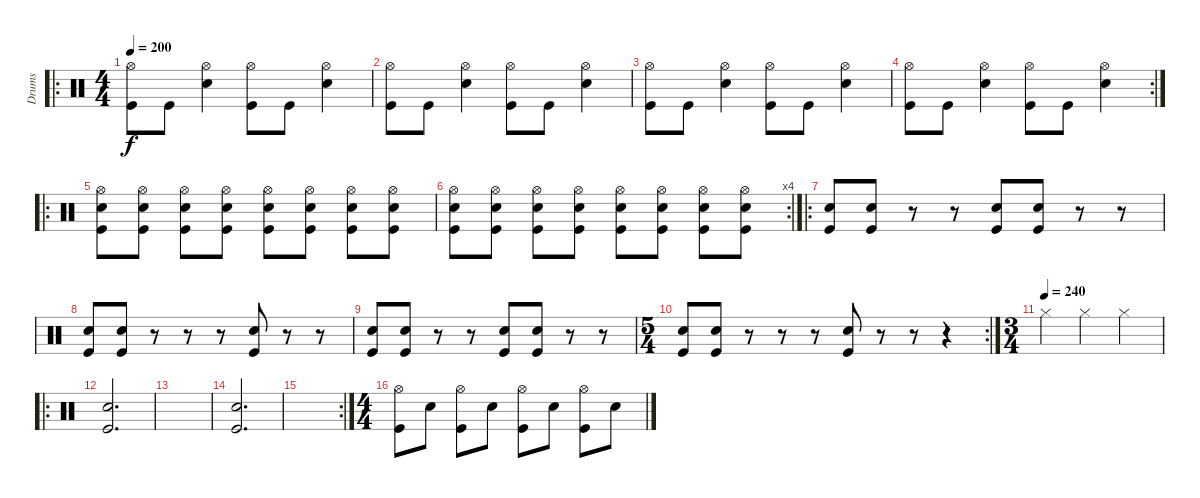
\track ("Drums" "Drums") {instrument percussion}
\staff {score}
\articulation defaults
\ro
\ts (4 4)
\tempo 200
\clef neutral
\ks c
("Hi-Hat (open)" "Kick (hit)").8{dy f} "Kick (hit)".8 ("Hi-Hat (open)" "Snare (hit) 2").4 ("Hi-Hat (open)" "Kick (hit)").8 "Kick (hit)".8 ("Hi-Hat (open)" "Snare (hit) 2").4 |
("Hi-Hat (open)" "Kick (hit)").8 "Kick (hit)".8 ("Hi-Hat (open)" "Snare (hit) 2").4 ("Hi-Hat (open)" "Kick (hit)").8 "Kick (hit)".8 ("Hi-Hat (open)" "Snare (hit) 2").4 |
("Hi-Hat (open)" "Kick (hit)").8 "Kick (hit)".8 ("Hi-Hat (open)" "Snare (hit) 2").4 ("Hi-Hat (open)" "Kick (hit)").8 "Kick (hit)".8 ("Hi-Hat (open)" "Snare (hit) 2").4 |
\rc 2
("Hi-Hat (open)" "Kick (hit)").8 "Kick (hit)".8 ("Hi-Hat (open)" "Snare (hit) 2").4 ("Hi-Hat (open)" "Kick (hit)").8 "Kick (hit)".8 ("Hi-Hat (open)" "Snare (hit) 2").4 |
\ro
("Hi-Hat (open)" "Snare (hit) 2" "Kick (hit)").8 ("Hi-Hat (open)" "Snare (hit) 2" "Kick (hit)").8 ("Hi-Hat (open)" "Snare (hit) 2" "Kick (hit)").8 ("Hi-Hat (open)" "Snare (hit) 2" "Kick (hit)").8 ("Hi-Hat (open)" "Snare (hit) 2" "Kick (hit)").8 ("Hi-Hat (open)" "Snare (hit) 2" "Kick (hit)").8 ("Hi-Hat (open)" "Snare (hit) 2" "Kick (hit)").8 ("Hi-Hat (open)" "Snare (hit) 2" "Kick (hit)").8 |
\rc 4
("Hi-Hat (open)" "Snare (hit) 2" "Kick (hit)").8 ("Hi-Hat (open)" "Snare (hit) 2" "Kick (hit)").8 ("Hi-Hat (open)" "Snare (hit) 2" "Kick (hit)").8 ("Hi-Hat (open)" "Snare (hit) 2" "Kick (hit)").8 ("Hi-Hat (open)" "Snare (hit) 2" "Kick (hit)").8 ("Hi-Hat (open)" "Snare (hit) 2" "Kick (hit)").8 ("Hi-Hat (open)" "Snare (hit) 2" "Kick (hit)").8 ("Hi-Hat (open)" "Snare (hit) 2" "Kick (hit)").8 |
\ro
("Snare (hit) 2" "Kick (hit)").8 ("Snare (hit) 2" "Kick (hit)").8 r.8 r.8 ("Snare (hit) 2" "Kick (hit)").8 ("Snare (hit) 2" "Kick (hit)").8 r.8 r.8 |
("Snare (hit) 2" "Kick (hit)").8 ("Snare (hit) 2" "Kick (hit)").8 r.8 r.8 r.8 ("Snare (hit) 2" "Kick (hit)").8 r.8 r.8 |
("Snare (hit) 2" "Kick (hit)").8 ("Snare (hit) 2" "Kick (hit)").8 r.8 r.8 ("Snare (hit) 2" "Kick (hit)").8 ("Snare (hit) 2" "Kick (hit)").8 r.8 r.8 |
\rc 2
\ts (5 4)
("Snare (hit) 2" "Kick (hit)").8 ("Snare (hit) 2" "Kick (hit)").8 r.8 r.8 r.8 ("Snare (hit) 2" "Kick (hit)").8 r.8 r.8 r.4 |
\ts (3 4)
\tempo (240)
"Hi-Hat (closed)".4 "Hi-Hat (closed)".4 "Hi-Hat (closed)".4 |
\ro
("Snare (hit) 2" "Kick (hit)").2{d} |
|
("Snare (hit) 2" "Kick (hit)").2{d} |
\rc 2
|
\ts (4 4)
("Hi-Hat (open)" "Kick (hit)").8 "Snare (hit) 2".8 ("Hi-Hat (open)" "Kick (hit)").8 "Snare (hit) 2".8 ("Hi-Hat (open)" "Kick (hit)").8 "Snare (hit) 2".8 ("Hi-Hat (open)" "Kick (hit)").8 "Snare (hit) 2".8
